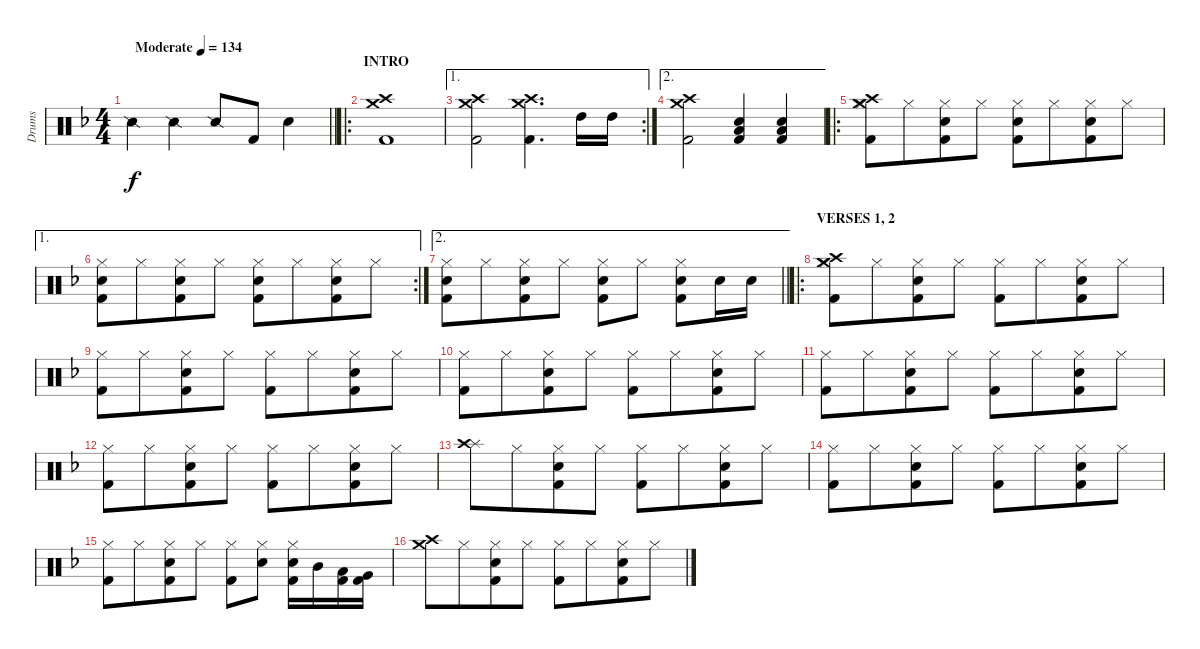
\track ("Drums" "Drums") {instrument percussion}
\staff {score}
\articulation defaults
\ts (4 4)
\tempo (134 "Moderate")
\clef neutral
\barLineRight lightlight
\ks f "Snare (side stick) 2".4{dy f} "Snare (side stick) 2".4 "Snare (side stick) 2".8 "Kick (hit) 2".8 "Snare (hit) 2".4
|
\ro
\section ("" "INTRO")
("Kick (hit) 2" "Crash medium (hit)" "Crash high (hit)").1 |
\ae 1
\rc 2
("Kick (hit) 2" "Crash high (hit)" "Crash medium (hit)").2 ("Kick (hit) 2" "Crash high (hit)" "Crash medium (hit)").4{d} "High Tom (hit)".16 "High Tom (hit)".16 |
\ae 2
("Kick (hit) 2" "Crash medium (hit)" "Crash high (hit)").2 ("Kick (hit) 2" "Snare (hit) 2" "Low Tom (hit)").4 ("Kick (hit) 2" "Snare (hit) 2" "Low Tom (hit)").4 |
\ro
("Hi-Hat (closed)" "Kick (hit) 2" "Crash high (hit)" "Crash medium (hit)").8 "Hi-Hat (closed)".8{beam merge} ("Hi-Hat (closed)" "Kick (hit) 2" "Snare (hit) 2").8 "Hi-Hat (closed)".8 ("Hi-Hat (closed)" "Snare (hit) 2" "Kick (hit) 2").8 "Hi-Hat (closed)".8{beam merge} ("Hi-Hat (closed)" "Kick (hit) 2" "Snare (hit) 2").8 "Hi-Hat (closed)".8 |
\ae 1
\rc 2
("Hi-Hat (closed)" "Kick (hit) 2" "Snare (hit) 2").8 "Hi-Hat (closed)".8{beam merge} ("Hi-Hat (closed)" "Kick (hit) 2" "Snare (hit) 2").8 "Hi-Hat (closed)".8 ("Hi-Hat (closed)" "Kick (hit) 2" "Snare (hit) 2").8 "Hi-Hat (closed)".8{beam merge} ("Hi-Hat (closed)" "Kick (hit) 2" "Snare (hit) 2").8 "Hi-Hat (closed)".8 |
\ae 2
\barLineRight lightlight
("Hi-Hat (closed)" "Kick (hit) 2" "Snare (hit) 2").8 "Hi-Hat (closed)".8{beam merge} ("Hi-Hat (closed)" "Kick (hit) 2" "Snare (hit) 2").8 "Hi-Hat (closed)".8 ("Hi-Hat (closed)" "Kick (hit) 2" "Snare (hit) 2").8 "Hi-Hat (closed)".8 ("Hi-Hat (closed)" "Kick (hit) 2" "Snare (hit) 2").8 "Snare (hit) 2".16 "Snare (hit) 2".16 |
\ro
\section ("" "VERSES 1, 2")
("Hi-Hat (closed)" "Kick (hit) 2" "Crash high (hit)" "Crash medium (hit)").8 "Hi-Hat (closed)".8{beam merge} ("Hi-Hat (closed)" "Kick (hit) 2" "Snare (hit) 2").8 "Hi-Hat (closed)".8 ("Hi-Hat (closed)" "Kick (hit) 2").8 "Hi-Hat (closed)".8{beam merge} ("Hi-Hat (closed)" "Kick (hit) 2" "Snare (hit) 2").8 "Hi-Hat (closed)".8 |
("Hi-Hat (closed)" "Kick (hit) 2").8 "Hi-Hat (closed)".8{beam merge} ("Hi-Hat (closed)" "Kick (hit) 2" "Snare (hit) 2").8 "Hi-Hat (closed)".8 ("Hi-Hat (closed)" "Kick (hit) 2").8 "Hi-Hat (closed)".8{beam merge} ("Hi-Hat (closed)" "Kick (hit) 2" "Snare (hit) 2").8 "Hi-Hat (closed)".8 |
("Hi-Hat (closed)" "Kick (hit) 2").8 "Hi-Hat (closed)".8{beam merge} ("Hi-Hat (closed)" "Kick (hit) 2" "Snare (hit) 2").8 "Hi-Hat (closed)".8 ("Hi-Hat (closed)" "Kick (hit) 2").8 "Hi-Hat (closed)".8{beam merge} ("Hi-Hat (closed)" "Kick (hit) 2" "Snare (hit) 2").8 "Hi-Hat (closed)".8 |
("Hi-Hat (closed)" "Kick (hit) 2").8 "Hi-Hat (closed)".8{beam merge} ("Hi-Hat (closed)" "Kick (hit) 2" "Snare (hit) 2").8 "Hi-Hat (closed)".8 ("Hi-Hat (closed)" "Kick (hit) 2").8 "Hi-Hat (closed)".8{beam merge} ("Hi-Hat (closed)" "Kick (hit) 2" "Snare (hit) 2").8 "Hi-Hat (closed)".8 |
("Hi-Hat (closed)" "Kick (hit) 2").8 "Hi-Hat (closed)".8{beam merge} ("Hi-Hat (closed)" "Kick (hit) 2" "Snare (hit) 2").8 "Hi-Hat (closed)".8 ("Hi-Hat (closed)" "Kick (hit) 2").8 "Hi-Hat (closed)".8{beam merge} ("Hi-Hat (closed)" "Kick (hit) 2" "Snare (hit) 2").8 "Hi-Hat (closed)".8 |
("Splash (hit)" "Crash high (hit)").8 "Hi-Hat (closed)".8{beam merge} ("Hi-Hat (closed)" "Kick (hit) 2" "Snare (hit) 2").8 "Hi-Hat (closed)".8 ("Hi-Hat (closed)" "Kick (hit) 2").8 "Hi-Hat (closed)".8{beam merge} ("Hi-Hat (closed)" "Kick (hit) 2" "Snare (hit) 2").8 "Hi-Hat (closed)".8 |
("Hi-Hat (closed)" "Kick (hit) 2").8 "Hi-Hat (closed)".8{beam merge} ("Hi-Hat (closed)" "Kick (hit) 2" "Snare (hit) 2").8 "Hi-Hat (closed)".8 ("Hi-Hat (closed)" "Kick (hit) 2").8 "Hi-Hat (closed)".8{beam merge} ("Hi-Hat (closed)" "Kick (hit) 2" "Snare (hit) 2").8 "Hi-Hat (closed)".8 |
("Hi-Hat (closed)" "Kick (hit) 2").8 "Hi-Hat (closed)".8{beam merge} ("Hi-Hat (closed)" "Kick (hit) 2" "Snare (hit) 2").8 "Hi-Hat (closed)".8 ("Hi-Hat (closed)" "Kick (hit) 2").8 ("Hi-Hat (closed)" "Snare (hit) 2").8 ("Hi-Hat (closed)" "Kick (hit) 2" "Snare (hit) 2").16 "Mid Tom (hit)".16 ("Low Tom (hit)" "Kick (hit) 2").16 ("Very Low Tom (hit)" "Kick (hit) 2").16 |
("Crash high (hit)" "Crash medium (hit)").8 "Hi-Hat (closed)".8{beam merge} ("Hi-Hat (closed)" "Kick (hit) 2" "Snare (hit) 2").8 "Hi-Hat (closed)".8 ("Hi-Hat (closed)" "Kick (hit) 2").8 "Hi-Hat (closed)".8{beam merge} ("Hi-Hat (closed)" "Kick (hit) 2" "Snare (hit) 2").8 "Hi-Hat (closed)".8
